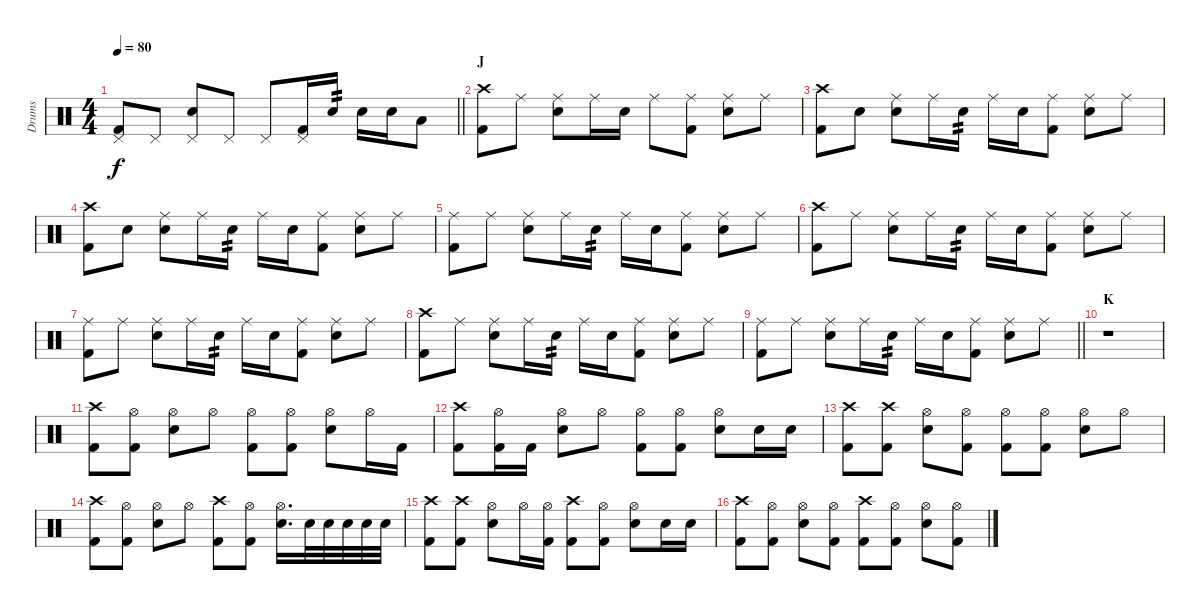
\track ("Drums" "Drums") {instrument percussion}
\staff {score}
\articulation defaults
\ts (4 4)
\tempo 80
\clef neutral
\barLineRight lightlight
\ks c
("Pedal Hi-Hat (hit)" "Kick (hit) 2").8{dy f} "Pedal Hi-Hat (hit)".8 ("Pedal Hi-Hat (hit)" "Snare (hit) 2").8 "Pedal Hi-Hat (hit)".8 "Pedal Hi-Hat (hit)".8 ("Pedal Hi-Hat (hit)" "Kick (hit) 2").16 "Snare (hit) 2".16{tp 2} "Snare (hit) 2".16 "Snare (hit) 2".16 "Low Tom (hit)".8 |
\section ("" "J")
("Crash high (hit)" "Kick (hit) 2").8 "Ride (middle)".8 ("Ride (middle)" "Snare (hit) 2").8 "Ride (middle)".16 "Snare (hit) 2".16 "Ride (middle)".8 ("Ride (middle)" "Kick (hit) 2").8 ("Ride (middle)" "Snare (hit) 2").8 "Ride (middle)".8 |
("Crash high (hit)" "Kick (hit) 2").8 "Snare (hit)".8 ("Ride (middle)" "Snare (hit) 2").8 "Ride (middle)".16 "Snare (hit) 2".16{tp 2} "Ride (middle)".16 "Snare (hit) 2".16 ("Ride (middle)" "Kick (hit) 2").8 ("Ride (middle)" "Snare (hit) 2").8 "Ride (middle)".8 |
("Crash high (hit)" "Kick (hit) 2").8 "Snare (hit)".8 ("Ride (middle)" "Snare (hit) 2").8 "Ride (middle)".16 "Snare (hit) 2".16{tp 2} "Ride (middle)".16 "Snare (hit) 2".16 ("Ride (middle)" "Kick (hit) 2").8 ("Ride (middle)" "Snare (hit) 2").8 "Ride (middle)".8 |
("Ride (middle)" "Kick (hit) 2").8 "Ride (middle)".8 ("Ride (middle)" "Snare (hit) 2").8 "Ride (middle)".16 "Snare (hit) 2".16{tp 2} "Ride (middle)".16 "Snare (hit) 2".16 ("Ride (middle)" "Kick (hit) 2").8 ("Ride (middle)" "Snare (hit) 2").8 "Ride (middle)".8 |
("Crash high (hit)" "Kick (hit) 2").8 "Ride (middle)".8 ("Ride (middle)" "Snare (hit) 2").8 "Ride (middle)".16 "Snare (hit) 2".16{tp 2} "Ride (middle)".16 "Snare (hit) 2".16 ("Ride (middle)" "Kick (hit) 2").8 ("Ride (middle)" "Snare (hit) 2").8 "Ride (middle)".8 |
("Ride (middle)" "Kick (hit) 2").8 "Ride (middle)".8 ("Ride (middle)" "Snare (hit) 2").8 "Ride (middle)".16 "Snare (hit) 2".16{tp 2} "Ride (middle)".16 "Snare (hit) 2".16 ("Ride (middle)" "Kick (hit) 2").8 ("Ride (middle)" "Snare (hit) 2").8 "Ride (middle)".8 |
("Crash high (hit)" "Kick (hit) 2").8 "Ride (middle)".8 ("Ride (middle)" "Snare (hit) 2").8 "Ride (middle)".16 "Snare (hit) 2".16{tp 2} "Ride (middle)".16 "Snare (hit) 2".16 ("Ride (middle)" "Kick (hit) 2").8 ("Ride (middle)" "Snare (hit) 2").8 "Ride (middle)".8 |
\barLineRight lightlight
("Ride (middle)" "Kick (hit) 2").8 "Ride (middle)".8 ("Ride (middle)" "Snare (hit) 2").8 "Ride (middle)".16 "Snare (hit) 2".16{tp 2} "Ride (middle)".16 "Snare (hit) 2".16 ("Ride (middle)" "Kick (hit) 2").8 ("Ride (middle)" "Snare (hit) 2").8 "Ride (middle)".8 |
\section ("" "K")
r.1 |
("Crash high (hit)" "Kick (hit) 2").8 ("Hi-Hat (open)" "Kick (hit) 2").8 ("Hi-Hat (open)" "Snare (hit) 2").8 "Hi-Hat (open)".8 ("Hi-Hat (open)" "Kick (hit) 2").8 ("Hi-Hat (open)" "Kick (hit) 2").8 ("Hi-Hat (open)" "Snare (hit) 2").8 "Hi-Hat (open)".16 "Kick (hit) 2".16 |
("Crash high (hit)" "Kick (hit) 2").8 ("Hi-Hat (open)" "Kick (hit) 2").16 "Kick (hit) 2".16 ("Hi-Hat (open)" "Snare (hit) 2").8 "Hi-Hat (open)".8 ("Hi-Hat (open)" "Kick (hit) 2").8 ("Hi-Hat (open)" "Kick (hit) 2").8 ("Hi-Hat (open)" "Snare (hit) 2").8 "Snare (hit) 2".16 "Snare (hit) 2".16 |
("Crash high (hit)" "Kick (hit) 2").8 ("Crash high (hit)" "Kick (hit) 2").8 ("Hi-Hat (open)" "Snare (hit) 2").8 ("Hi-Hat (open)" "Kick (hit) 2").8 ("Hi-Hat (open)" "Kick (hit) 2").8 ("Hi-Hat (open)" "Kick (hit) 2").8 ("Hi-Hat (open)" "Snare (hit) 2").8 "Hi-Hat (open)".8 |
("Crash high (hit)" "Kick (hit) 2").8 ("Hi-Hat (open)" "Kick (hit) 2").8 ("Hi-Hat (open)" "Snare (hit) 2").8 "Hi-Hat (open)".8 ("Crash high (hit)" "Kick (hit) 2").8 ("Hi-Hat (open)" "Kick (hit) 2").8 ("Hi-Hat (open)" "Snare (hit) 2").16{d} "Snare (hit) 2".32 "Snare (hit) 2".32 "Snare (hit) 2".32 "Snare (hit) 2".32 "Snare (hit) 2".32 |
("Crash high (hit)" "Kick (hit) 2").8 ("Crash high (hit)" "Kick (hit) 2").8 ("Hi-Hat (open)" "Snare (hit) 2").8 "Hi-Hat (open)".16 ("Hi-Hat (open)" "Kick (hit) 2").16 ("Crash high (hit)" "Kick (hit) 2").8 ("Hi-Hat (open)" "Kick (hit) 2").8 ("Hi-Hat (open)" "Snare (hit) 2").8 "Snare (hit) 2".16 "Snare (hit) 2".16 |
("Crash high (hit)" "Kick (hit) 2").8 ("Hi-Hat (open)" "Kick (hit) 2").8 ("Hi-Hat (open)" "Snare (hit) 2").8 ("Hi-Hat (open)" "Kick (hit) 2").8 ("Crash high (hit)" "Kick (hit) 2").8 ("Hi-Hat (open)" "Kick (hit) 2").8 ("Hi-Hat (open)" "Snare (hit) 2").8 ("Hi-Hat (open)" "Kick (hit) 2").8
